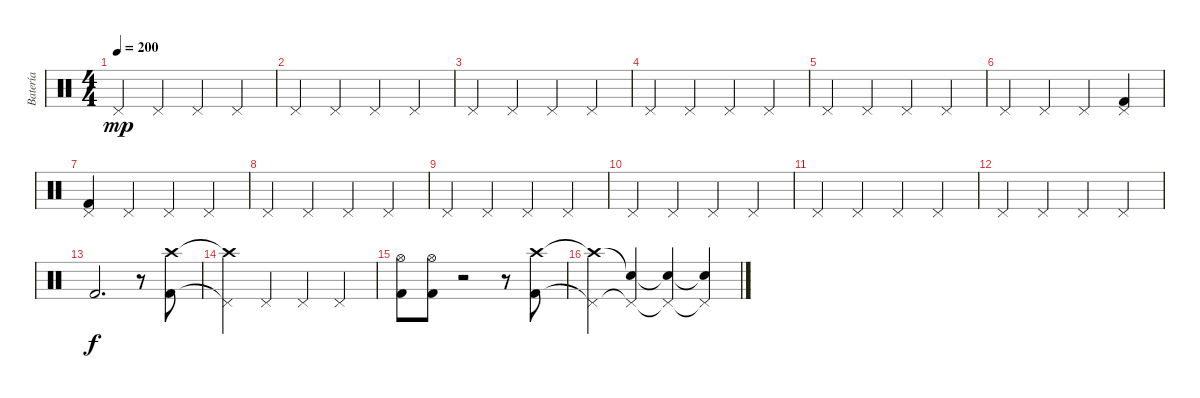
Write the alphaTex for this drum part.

\track ("Batería" "Batería") {instrument percussion}
\staff {score}
\articulation defaults
\ts (4 4)
\tempo 200
\clef neutral
\ks c "Pedal Hi-Hat (hit)".4{dy mp} "Pedal Hi-Hat (hit)".4 "Pedal Hi-Hat (hit)".4 "Pedal Hi-Hat (hit)".4
|
"Pedal Hi-Hat (hit)".4 "Pedal Hi-Hat (hit)".4 "Pedal Hi-Hat (hit)".4 "Pedal Hi-Hat (hit)".4 |
"Pedal Hi-Hat (hit)".4 "Pedal Hi-Hat (hit)".4 "Pedal Hi-Hat (hit)".4 "Pedal Hi-Hat (hit)".4 |
"Pedal Hi-Hat (hit)".4 "Pedal Hi-Hat (hit)".4 "Pedal Hi-Hat (hit)".4 "Pedal Hi-Hat (hit)".4 |
"Pedal Hi-Hat (hit)".4 "Pedal Hi-Hat (hit)".4 "Pedal Hi-Hat (hit)".4 "Pedal Hi-Hat (hit)".4 |
"Pedal Hi-Hat (hit)".4 "Pedal Hi-Hat (hit)".4 "Pedal Hi-Hat (hit)".4 ("Pedal Hi-Hat (hit)" "Kick (hit) 2").4 |
("Pedal Hi-Hat (hit)" "Kick (hit) 2").4 "Pedal Hi-Hat (hit)".4 "Pedal Hi-Hat (hit)".4 "Pedal Hi-Hat (hit)".4 |
"Pedal Hi-Hat (hit)".4 "Pedal Hi-Hat (hit)".4 "Pedal Hi-Hat (hit)".4 "Pedal Hi-Hat (hit)".4 |
"Pedal Hi-Hat (hit)".4 "Pedal Hi-Hat (hit)".4 "Pedal Hi-Hat (hit)".4 "Pedal Hi-Hat (hit)".4 |
"Pedal Hi-Hat (hit)".4 "Pedal Hi-Hat (hit)".4 "Pedal Hi-Hat (hit)".4 "Pedal Hi-Hat (hit)".4 |
"Pedal Hi-Hat (hit)".4 "Pedal Hi-Hat (hit)".4 "Pedal Hi-Hat (hit)".4 "Pedal Hi-Hat (hit)".4 |
"Pedal Hi-Hat (hit)".4 "Pedal Hi-Hat (hit)".4 "Pedal Hi-Hat (hit)".4 "Pedal Hi-Hat (hit)".4 |
"Kick (hit) 2".2{d dy f} r.8 ("Kick (hit) 2" "Crash high (hit)").8 |
("Pedal Hi-Hat (hit)"{t} "Crash high (hit)"{t}).4 "Pedal Hi-Hat (hit)".4 "Pedal Hi-Hat (hit)".4 "Pedal Hi-Hat (hit)".4 |
("Kick (hit) 2" "Hi-Hat (open)").8 ("Kick (hit) 2" "Hi-Hat (open)").8 r.2 r.8 ("Kick (hit) 2" "Crash high (hit)").8 |
("Pedal Hi-Hat (hit)"{t} "Crash high (hit)"{t}).4 ("Pedal Hi-Hat (hit)"{t} "Snare (hit)"{t}).4 ("Pedal Hi-Hat (hit)"{t} "Snare (hit)"{t}).4 ("Pedal Hi-Hat (hit)"{t} "Snare (hit)"{t}).4
